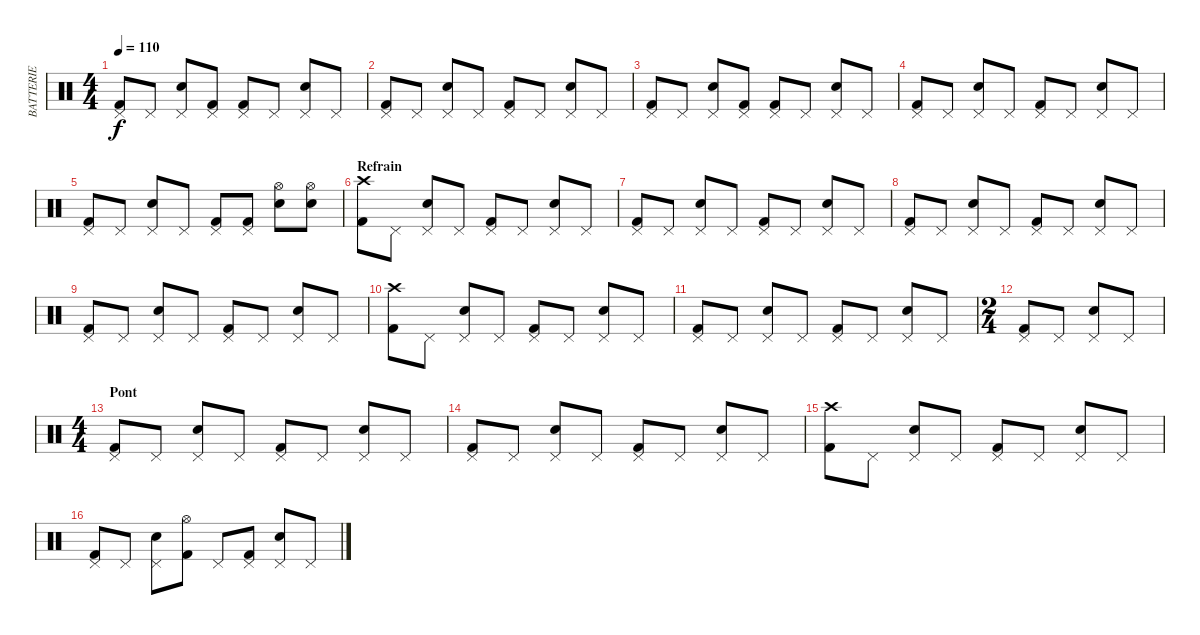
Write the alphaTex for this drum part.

\track ("BATTERIE" "BATTERIE") {instrument percussion}
\staff {score}
\articulation defaults
\ts (4 4)
\tempo 110
\clef neutral
\ks c
("Pedal Hi-Hat (hit)" "Kick (hit) 2").8{dy f} "Pedal Hi-Hat (hit)".8 ("Pedal Hi-Hat (hit)" "Snare (hit) 2").8 ("Pedal Hi-Hat (hit)" "Kick (hit) 2").8 ("Pedal Hi-Hat (hit)" "Kick (hit) 2").8 "Pedal Hi-Hat (hit)".8 ("Pedal Hi-Hat (hit)" "Snare (hit) 2").8 "Pedal Hi-Hat (hit)".8 |
("Pedal Hi-Hat (hit)" "Kick (hit) 2").8 "Pedal Hi-Hat (hit)".8 ("Pedal Hi-Hat (hit)" "Snare (hit) 2").8 "Pedal Hi-Hat (hit)".8 ("Pedal Hi-Hat (hit)" "Kick (hit) 2").8 "Pedal Hi-Hat (hit)".8 ("Pedal Hi-Hat (hit)" "Snare (hit) 2").8 "Pedal Hi-Hat (hit)".8 |
("Pedal Hi-Hat (hit)" "Kick (hit) 2").8 "Pedal Hi-Hat (hit)".8 ("Pedal Hi-Hat (hit)" "Snare (hit) 2").8 ("Pedal Hi-Hat (hit)" "Kick (hit) 2").8 ("Pedal Hi-Hat (hit)" "Kick (hit) 2").8 "Pedal Hi-Hat (hit)".8 ("Pedal Hi-Hat (hit)" "Snare (hit) 2").8 "Pedal Hi-Hat (hit)".8 |
("Pedal Hi-Hat (hit)" "Kick (hit) 2").8 "Pedal Hi-Hat (hit)".8 ("Pedal Hi-Hat (hit)" "Snare (hit) 2").8 "Pedal Hi-Hat (hit)".8 ("Pedal Hi-Hat (hit)" "Kick (hit) 2").8 "Pedal Hi-Hat (hit)".8 ("Pedal Hi-Hat (hit)" "Snare (hit) 2").8 "Pedal Hi-Hat (hit)".8 |
("Pedal Hi-Hat (hit)" "Kick (hit) 2").8 "Pedal Hi-Hat (hit)".8 ("Pedal Hi-Hat (hit)" "Snare (hit) 2").8 "Pedal Hi-Hat (hit)".8 ("Pedal Hi-Hat (hit)" "Kick (hit) 2").8 ("Pedal Hi-Hat (hit)" "Kick (hit) 2").8 ("Hi-Hat (open)" "Snare (hit) 2").8 ("Hi-Hat (open)" "Snare (hit) 2").8 |
\section ("" "Refrain")
("Crash high (hit)" "Kick (hit) 2").8 "Pedal Hi-Hat (hit)".8 ("Pedal Hi-Hat (hit)" "Snare (hit) 2").8 "Pedal Hi-Hat (hit)".8 ("Pedal Hi-Hat (hit)" "Kick (hit) 2").8 "Pedal Hi-Hat (hit)".8 ("Pedal Hi-Hat (hit)" "Snare (hit) 2").8 "Pedal Hi-Hat (hit)".8 |
("Pedal Hi-Hat (hit)" "Kick (hit) 2").8 "Pedal Hi-Hat (hit)".8 ("Pedal Hi-Hat (hit)" "Snare (hit) 2").8 "Pedal Hi-Hat (hit)".8 ("Pedal Hi-Hat (hit)" "Kick (hit) 2").8 "Pedal Hi-Hat (hit)".8 ("Pedal Hi-Hat (hit)" "Snare (hit) 2").8 "Pedal Hi-Hat (hit)".8 |
("Pedal Hi-Hat (hit)" "Kick (hit) 2").8 "Pedal Hi-Hat (hit)".8 ("Pedal Hi-Hat (hit)" "Snare (hit) 2").8 "Pedal Hi-Hat (hit)".8 ("Pedal Hi-Hat (hit)" "Kick (hit) 2").8 "Pedal Hi-Hat (hit)".8 ("Pedal Hi-Hat (hit)" "Snare (hit) 2").8 "Pedal Hi-Hat (hit)".8 |
("Pedal Hi-Hat (hit)" "Kick (hit) 2").8 "Pedal Hi-Hat (hit)".8 ("Pedal Hi-Hat (hit)" "Snare (hit) 2").8 "Pedal Hi-Hat (hit)".8 ("Pedal Hi-Hat (hit)" "Kick (hit) 2").8 "Pedal Hi-Hat (hit)".8 ("Pedal Hi-Hat (hit)" "Snare (hit) 2").8 "Pedal Hi-Hat (hit)".8 |
("Crash high (hit)" "Kick (hit) 2").8 "Pedal Hi-Hat (hit)".8 ("Pedal Hi-Hat (hit)" "Snare (hit) 2").8 "Pedal Hi-Hat (hit)".8 ("Pedal Hi-Hat (hit)" "Kick (hit) 2").8 "Pedal Hi-Hat (hit)".8 ("Pedal Hi-Hat (hit)" "Snare (hit) 2").8 "Pedal Hi-Hat (hit)".8 |
("Pedal Hi-Hat (hit)" "Kick (hit) 2").8 "Pedal Hi-Hat (hit)".8 ("Pedal Hi-Hat (hit)" "Snare (hit) 2").8 "Pedal Hi-Hat (hit)".8 ("Pedal Hi-Hat (hit)" "Kick (hit) 2").8 "Pedal Hi-Hat (hit)".8 ("Pedal Hi-Hat (hit)" "Snare (hit) 2").8 "Pedal Hi-Hat (hit)".8 |
\ts (2 4)
("Pedal Hi-Hat (hit)" "Kick (hit) 2").8 "Pedal Hi-Hat (hit)".8 ("Pedal Hi-Hat (hit)" "Snare (hit) 2").8 "Pedal Hi-Hat (hit)".8 |
\ts (4 4)
\section ("" "Pont")
("Pedal Hi-Hat (hit)" "Kick (hit) 2").8 "Pedal Hi-Hat (hit)".8 ("Pedal Hi-Hat (hit)" "Snare (hit) 2").8 "Pedal Hi-Hat (hit)".8 ("Pedal Hi-Hat (hit)" "Kick (hit) 2").8 "Pedal Hi-Hat (hit)".8 ("Pedal Hi-Hat (hit)" "Snare (hit) 2").8 "Pedal Hi-Hat (hit)".8 |
("Pedal Hi-Hat (hit)" "Kick (hit) 2").8 "Pedal Hi-Hat (hit)".8 ("Pedal Hi-Hat (hit)" "Snare (hit) 2").8 "Pedal Hi-Hat (hit)".8 ("Pedal Hi-Hat (hit)" "Kick (hit) 2").8 "Pedal Hi-Hat (hit)".8 ("Pedal Hi-Hat (hit)" "Snare (hit) 2").8 "Pedal Hi-Hat (hit)".8 |
("Crash high (hit)" "Kick (hit) 2").8 "Pedal Hi-Hat (hit)".8 ("Pedal Hi-Hat (hit)" "Snare (hit) 2").8 "Pedal Hi-Hat (hit)".8 ("Pedal Hi-Hat (hit)" "Kick (hit) 2").8 "Pedal Hi-Hat (hit)".8 ("Pedal Hi-Hat (hit)" "Snare (hit) 2").8 "Pedal Hi-Hat (hit)".8 |
("Pedal Hi-Hat (hit)" "Kick (hit) 2").8 "Pedal Hi-Hat (hit)".8 ("Pedal Hi-Hat (hit)" "Snare (hit) 2").8 ("Hi-Hat (open)" "Kick (hit) 2").8 "Pedal Hi-Hat (hit)".8 ("Pedal Hi-Hat (hit)" "Kick (hit) 2").8 ("Pedal Hi-Hat (hit)" "Snare (hit) 2").8 "Pedal Hi-Hat (hit)".8
